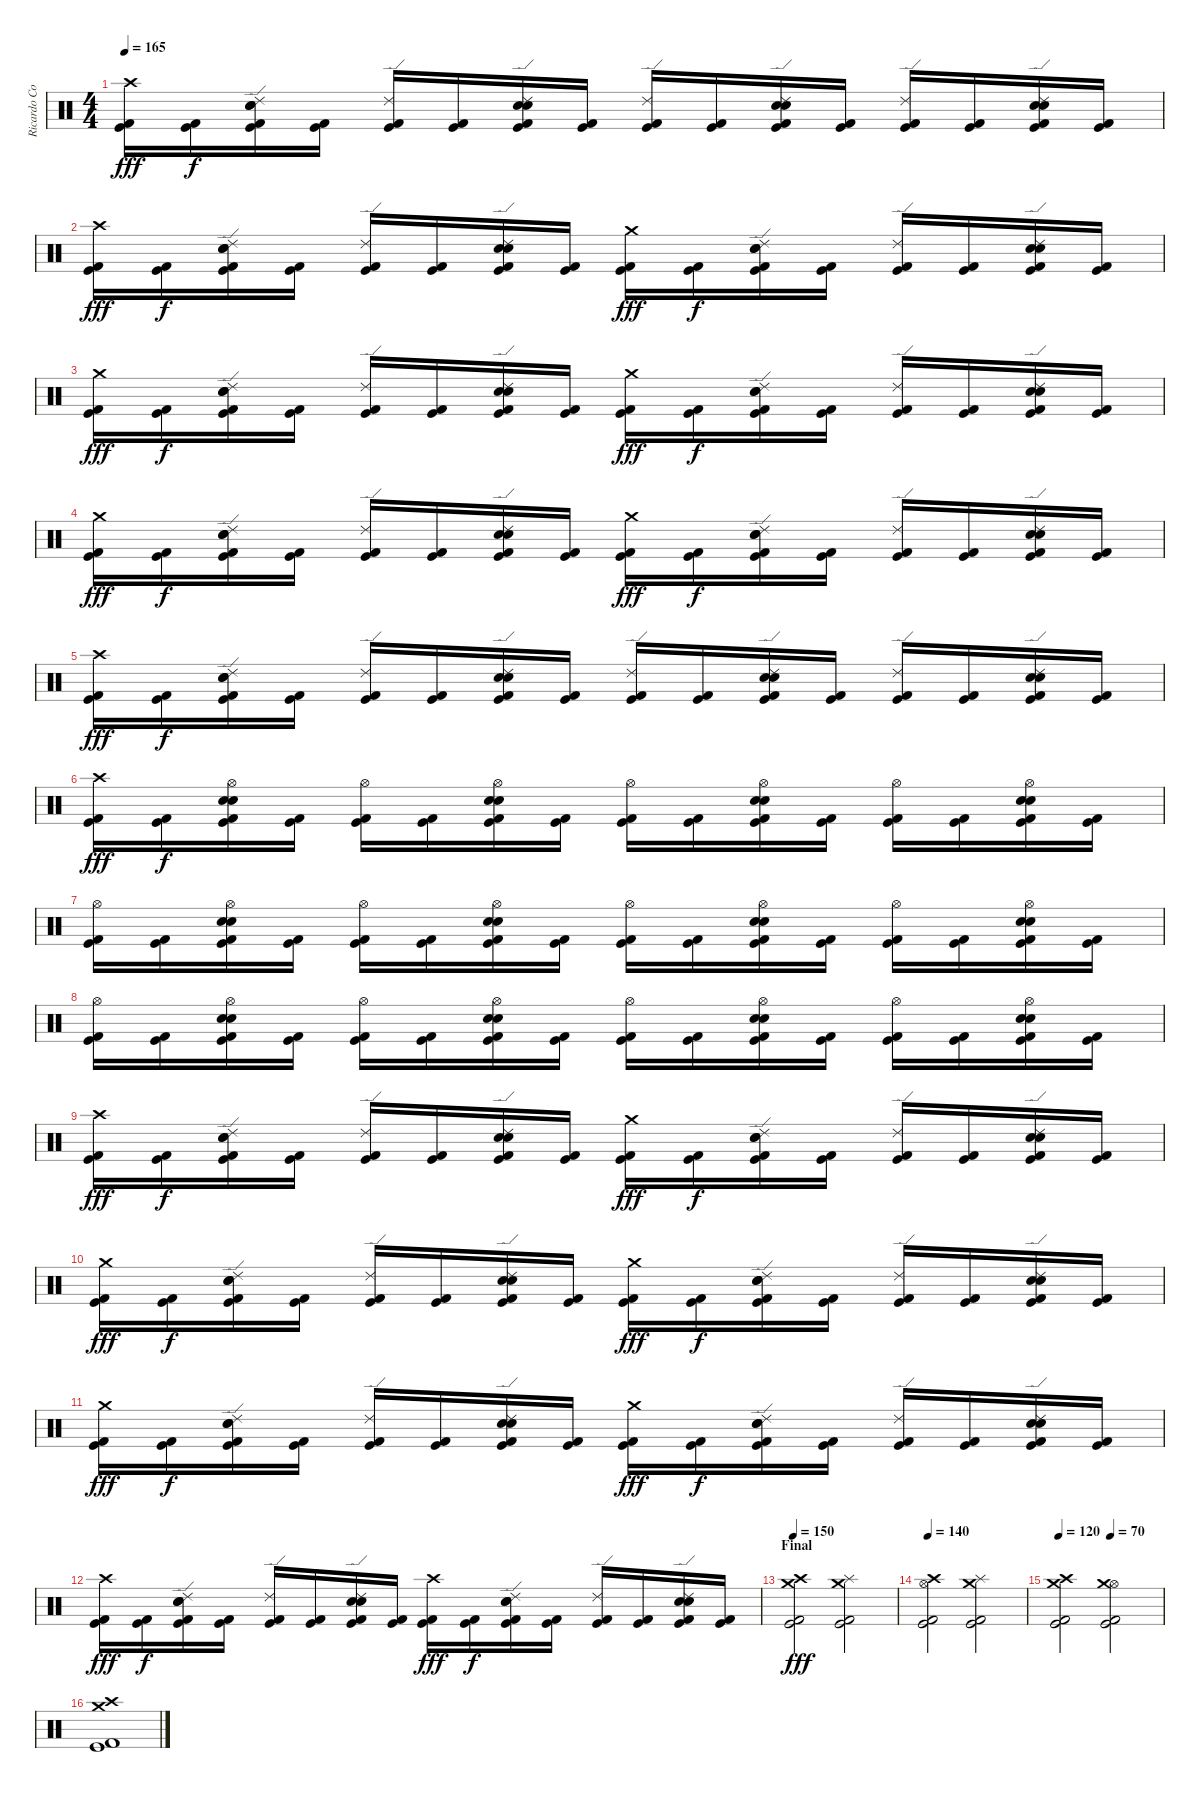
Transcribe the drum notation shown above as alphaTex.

\track ("Ricardo Confessori" "Ricardo Co") {instrument percussion}
\staff {score}
\articulation defaults
\ts (4 4)
\tempo 165
\clef neutral
\ks c
("Crash high (hit)" "Kick (hit) 2" "Kick (hit)").16{dy fff} ("Kick (hit) 2" "Kick (hit)").16{dy f} ("Ride (edge) 2" "Electric Snare (hit)" "Snare (hit) 2" "Kick (hit) 2" "Kick (hit)").16 ("Kick (hit) 2" "Kick (hit)").16 ("Ride (edge) 2" "Kick (hit) 2" "Kick (hit)").16 ("Kick (hit) 2" "Kick (hit)").16 ("Ride (edge) 2" "Electric Snare (hit)" "Snare (hit) 2" "Kick (hit) 2" "Kick (hit)").16 ("Kick (hit) 2" "Kick (hit)").16 ("Ride (edge) 2" "Kick (hit) 2" "Kick (hit)").16 ("Kick (hit) 2" "Kick (hit)").16 ("Ride (edge) 2" "Electric Snare (hit)" "Snare (hit) 2" "Kick (hit) 2" "Kick (hit)").16 ("Kick (hit) 2" "Kick (hit)").16 ("Ride (edge) 2" "Kick (hit) 2" "Kick (hit)").16 ("Kick (hit) 2" "Kick (hit)").16 ("Ride (edge) 2" "Electric Snare (hit)" "Snare (hit) 2" "Kick (hit) 2" "Kick (hit)").16 ("Kick (hit) 2" "Kick (hit)").16 |
("Crash high (hit)" "Kick (hit) 2" "Kick (hit)").16{dy fff} ("Kick (hit) 2" "Kick (hit)").16{dy f} ("Ride (edge) 2" "Electric Snare (hit)" "Snare (hit) 2" "Kick (hit) 2" "Kick (hit)").16 ("Kick (hit) 2" "Kick (hit)").16 ("Ride (edge) 2" "Kick (hit) 2" "Kick (hit)").16 ("Kick (hit) 2" "Kick (hit)").16 ("Ride (edge) 2" "Electric Snare (hit)" "Snare (hit) 2" "Kick (hit) 2" "Kick (hit)").16 ("Kick (hit) 2" "Kick (hit)").16 ("Crash medium (hit)" "Kick (hit) 2" "Kick (hit)").16{dy fff} ("Kick (hit) 2" "Kick (hit)").16{dy f} ("Ride (edge) 2" "Electric Snare (hit)" "Snare (hit) 2" "Kick (hit) 2" "Kick (hit)").16 ("Kick (hit) 2" "Kick (hit)").16 ("Ride (edge) 2" "Kick (hit) 2" "Kick (hit)").16 ("Kick (hit) 2" "Kick (hit)").16 ("Ride (edge) 2" "Electric Snare (hit)" "Snare (hit) 2" "Kick (hit) 2" "Kick (hit)").16 ("Kick (hit) 2" "Kick (hit)").16 |
("Crash medium (hit)" "Kick (hit) 2" "Kick (hit)").16{dy fff} ("Kick (hit) 2" "Kick (hit)").16{dy f} ("Ride (edge) 2" "Electric Snare (hit)" "Snare (hit) 2" "Kick (hit) 2" "Kick (hit)").16 ("Kick (hit) 2" "Kick (hit)").16 ("Ride (edge) 2" "Kick (hit) 2" "Kick (hit)").16 ("Kick (hit) 2" "Kick (hit)").16 ("Ride (edge) 2" "Electric Snare (hit)" "Snare (hit) 2" "Kick (hit) 2" "Kick (hit)").16 ("Kick (hit) 2" "Kick (hit)").16 ("Crash medium (hit)" "Kick (hit) 2" "Kick (hit)").16{dy fff} ("Kick (hit) 2" "Kick (hit)").16{dy f} ("Ride (edge) 2" "Electric Snare (hit)" "Snare (hit) 2" "Kick (hit) 2" "Kick (hit)").16 ("Kick (hit) 2" "Kick (hit)").16 ("Ride (edge) 2" "Kick (hit) 2" "Kick (hit)").16 ("Kick (hit) 2" "Kick (hit)").16 ("Ride (edge) 2" "Electric Snare (hit)" "Snare (hit) 2" "Kick (hit) 2" "Kick (hit)").16 ("Kick (hit) 2" "Kick (hit)").16 |
("Crash medium (hit)" "Kick (hit) 2" "Kick (hit)").16{dy fff} ("Kick (hit) 2" "Kick (hit)").16{dy f} ("Ride (edge) 2" "Electric Snare (hit)" "Snare (hit) 2" "Kick (hit) 2" "Kick (hit)").16 ("Kick (hit) 2" "Kick (hit)").16 ("Ride (edge) 2" "Kick (hit) 2" "Kick (hit)").16 ("Kick (hit) 2" "Kick (hit)").16 ("Ride (edge) 2" "Electric Snare (hit)" "Snare (hit) 2" "Kick (hit) 2" "Kick (hit)").16 ("Kick (hit) 2" "Kick (hit)").16 ("Crash medium (hit)" "Kick (hit) 2" "Kick (hit)").16{dy fff} ("Kick (hit) 2" "Kick (hit)").16{dy f} ("Ride (edge) 2" "Electric Snare (hit)" "Snare (hit) 2" "Kick (hit) 2" "Kick (hit)").16 ("Kick (hit) 2" "Kick (hit)").16 ("Ride (edge) 2" "Kick (hit) 2" "Kick (hit)").16 ("Kick (hit) 2" "Kick (hit)").16 ("Ride (edge) 2" "Electric Snare (hit)" "Snare (hit) 2" "Kick (hit) 2" "Kick (hit)").16 ("Kick (hit) 2" "Kick (hit)").16 |
("Crash high (hit)" "Kick (hit) 2" "Kick (hit)").16{dy fff} ("Kick (hit) 2" "Kick (hit)").16{dy f} ("Ride (edge) 2" "Electric Snare (hit)" "Snare (hit) 2" "Kick (hit) 2" "Kick (hit)").16 ("Kick (hit) 2" "Kick (hit)").16 ("Ride (edge) 2" "Kick (hit) 2" "Kick (hit)").16 ("Kick (hit) 2" "Kick (hit)").16 ("Ride (edge) 2" "Electric Snare (hit)" "Snare (hit) 2" "Kick (hit) 2" "Kick (hit)").16 ("Kick (hit) 2" "Kick (hit)").16 ("Ride (edge) 2" "Kick (hit) 2" "Kick (hit)").16 ("Kick (hit) 2" "Kick (hit)").16 ("Ride (edge) 2" "Electric Snare (hit)" "Snare (hit) 2" "Kick (hit) 2" "Kick (hit)").16 ("Kick (hit) 2" "Kick (hit)").16 ("Ride (edge) 2" "Kick (hit) 2" "Kick (hit)").16 ("Kick (hit) 2" "Kick (hit)").16 ("Ride (edge) 2" "Electric Snare (hit)" "Snare (hit) 2" "Kick (hit) 2" "Kick (hit)").16 ("Kick (hit) 2" "Kick (hit)").16 |
("Crash high (hit)" "Kick (hit) 2" "Kick (hit)").16{dy fff} ("Kick (hit) 2" "Kick (hit)").16{dy f} ("Hi-Hat (open)" "Electric Snare (hit)" "Snare (hit) 2" "Kick (hit) 2" "Kick (hit)").16 ("Kick (hit) 2" "Kick (hit)").16 ("Hi-Hat (open)" "Kick (hit) 2" "Kick (hit)").16 ("Kick (hit) 2" "Kick (hit)").16 ("Hi-Hat (open)" "Electric Snare (hit)" "Snare (hit) 2" "Kick (hit) 2" "Kick (hit)").16 ("Kick (hit) 2" "Kick (hit)").16 ("Hi-Hat (open)" "Kick (hit) 2" "Kick (hit)").16 ("Kick (hit) 2" "Kick (hit)").16 ("Hi-Hat (open)" "Electric Snare (hit)" "Snare (hit) 2" "Kick (hit) 2" "Kick (hit)").16 ("Kick (hit) 2" "Kick (hit)").16 ("Hi-Hat (open)" "Kick (hit) 2" "Kick (hit)").16 ("Kick (hit) 2" "Kick (hit)").16 ("Hi-Hat (open)" "Electric Snare (hit)" "Snare (hit) 2" "Kick (hit) 2" "Kick (hit)").16 ("Kick (hit) 2" "Kick (hit)").16 |
("Hi-Hat (open)" "Kick (hit) 2" "Kick (hit)").16 ("Kick (hit) 2" "Kick (hit)").16 ("Hi-Hat (open)" "Electric Snare (hit)" "Snare (hit) 2" "Kick (hit) 2" "Kick (hit)").16 ("Kick (hit) 2" "Kick (hit)").16 ("Hi-Hat (open)" "Kick (hit) 2" "Kick (hit)").16 ("Kick (hit) 2" "Kick (hit)").16 ("Hi-Hat (open)" "Electric Snare (hit)" "Snare (hit) 2" "Kick (hit) 2" "Kick (hit)").16 ("Kick (hit) 2" "Kick (hit)").16 ("Hi-Hat (open)" "Kick (hit) 2" "Kick (hit)").16 ("Kick (hit) 2" "Kick (hit)").16 ("Hi-Hat (open)" "Electric Snare (hit)" "Snare (hit) 2" "Kick (hit) 2" "Kick (hit)").16 ("Kick (hit) 2" "Kick (hit)").16 ("Hi-Hat (open)" "Kick (hit) 2" "Kick (hit)").16 ("Kick (hit) 2" "Kick (hit)").16 ("Hi-Hat (open)" "Electric Snare (hit)" "Snare (hit) 2" "Kick (hit) 2" "Kick (hit)").16 ("Kick (hit) 2" "Kick (hit)").16 |
("Hi-Hat (open)" "Kick (hit) 2" "Kick (hit)").16 ("Kick (hit) 2" "Kick (hit)").16 ("Hi-Hat (open)" "Electric Snare (hit)" "Snare (hit) 2" "Kick (hit) 2" "Kick (hit)").16 ("Kick (hit) 2" "Kick (hit)").16 ("Hi-Hat (open)" "Kick (hit) 2" "Kick (hit)").16 ("Kick (hit) 2" "Kick (hit)").16 ("Hi-Hat (open)" "Electric Snare (hit)" "Snare (hit) 2" "Kick (hit) 2" "Kick (hit)").16 ("Kick (hit) 2" "Kick (hit)").16 ("Hi-Hat (open)" "Kick (hit) 2" "Kick (hit)").16 ("Kick (hit) 2" "Kick (hit)").16 ("Hi-Hat (open)" "Electric Snare (hit)" "Snare (hit) 2" "Kick (hit) 2" "Kick (hit)").16 ("Kick (hit) 2" "Kick (hit)").16 ("Hi-Hat (open)" "Kick (hit) 2" "Kick (hit)").16 ("Kick (hit) 2" "Kick (hit)").16 ("Hi-Hat (open)" "Electric Snare (hit)" "Snare (hit) 2" "Kick (hit) 2" "Kick (hit)").16 ("Kick (hit) 2" "Kick (hit)").16 |
("Crash high (hit)" "Kick (hit) 2" "Kick (hit)").16{dy fff} ("Kick (hit) 2" "Kick (hit)").16{dy f} ("Ride (edge) 2" "Electric Snare (hit)" "Snare (hit) 2" "Kick (hit) 2" "Kick (hit)").16 ("Kick (hit) 2" "Kick (hit)").16 ("Ride (edge) 2" "Kick (hit) 2" "Kick (hit)").16 ("Kick (hit) 2" "Kick (hit)").16 ("Ride (edge) 2" "Electric Snare (hit)" "Snare (hit) 2" "Kick (hit) 2" "Kick (hit)").16 ("Kick (hit) 2" "Kick (hit)").16 ("Crash medium (hit)" "Kick (hit) 2" "Kick (hit)").16{dy fff} ("Kick (hit) 2" "Kick (hit)").16{dy f} ("Ride (edge) 2" "Electric Snare (hit)" "Snare (hit) 2" "Kick (hit) 2" "Kick (hit)").16 ("Kick (hit) 2" "Kick (hit)").16 ("Ride (edge) 2" "Kick (hit) 2" "Kick (hit)").16 ("Kick (hit) 2" "Kick (hit)").16 ("Ride (edge) 2" "Electric Snare (hit)" "Snare (hit) 2" "Kick (hit) 2" "Kick (hit)").16 ("Kick (hit) 2" "Kick (hit)").16 |
("Crash medium (hit)" "Kick (hit) 2" "Kick (hit)").16{dy fff} ("Kick (hit) 2" "Kick (hit)").16{dy f} ("Ride (edge) 2" "Electric Snare (hit)" "Snare (hit) 2" "Kick (hit) 2" "Kick (hit)").16 ("Kick (hit) 2" "Kick (hit)").16 ("Ride (edge) 2" "Kick (hit) 2" "Kick (hit)").16 ("Kick (hit) 2" "Kick (hit)").16 ("Ride (edge) 2" "Electric Snare (hit)" "Snare (hit) 2" "Kick (hit) 2" "Kick (hit)").16 ("Kick (hit) 2" "Kick (hit)").16 ("Crash medium (hit)" "Kick (hit) 2" "Kick (hit)").16{dy fff} ("Kick (hit) 2" "Kick (hit)").16{dy f} ("Ride (edge) 2" "Electric Snare (hit)" "Snare (hit) 2" "Kick (hit) 2" "Kick (hit)").16 ("Kick (hit) 2" "Kick (hit)").16 ("Ride (edge) 2" "Kick (hit) 2" "Kick (hit)").16 ("Kick (hit) 2" "Kick (hit)").16 ("Ride (edge) 2" "Electric Snare (hit)" "Snare (hit) 2" "Kick (hit) 2" "Kick (hit)").16 ("Kick (hit) 2" "Kick (hit)").16 |
("Crash medium (hit)" "Kick (hit) 2" "Kick (hit)").16{dy fff} ("Kick (hit) 2" "Kick (hit)").16{dy f} ("Ride (edge) 2" "Electric Snare (hit)" "Snare (hit) 2" "Kick (hit) 2" "Kick (hit)").16 ("Kick (hit) 2" "Kick (hit)").16 ("Ride (edge) 2" "Kick (hit) 2" "Kick (hit)").16 ("Kick (hit) 2" "Kick (hit)").16 ("Ride (edge) 2" "Electric Snare (hit)" "Snare (hit) 2" "Kick (hit) 2" "Kick (hit)").16 ("Kick (hit) 2" "Kick (hit)").16 ("Crash medium (hit)" "Kick (hit) 2" "Kick (hit)").16{dy fff} ("Kick (hit) 2" "Kick (hit)").16{dy f} ("Ride (edge) 2" "Electric Snare (hit)" "Snare (hit) 2" "Kick (hit) 2" "Kick (hit)").16 ("Kick (hit) 2" "Kick (hit)").16 ("Ride (edge) 2" "Kick (hit) 2" "Kick (hit)").16 ("Kick (hit) 2" "Kick (hit)").16 ("Ride (edge) 2" "Electric Snare (hit)" "Snare (hit) 2" "Kick (hit) 2" "Kick (hit)").16 ("Kick (hit) 2" "Kick (hit)").16 |
("Crash high (hit)" "Kick (hit) 2" "Kick (hit)").16{dy fff} ("Kick (hit) 2" "Kick (hit)").16{dy f} ("Ride (edge) 2" "Electric Snare (hit)" "Snare (hit) 2" "Kick (hit) 2" "Kick (hit)").16 ("Kick (hit) 2" "Kick (hit)").16 ("Ride (edge) 2" "Kick (hit) 2" "Kick (hit)").16 ("Kick (hit) 2" "Kick (hit)").16 ("Ride (edge) 2" "Electric Snare (hit)" "Snare (hit) 2" "Kick (hit) 2" "Kick (hit)").16 ("Kick (hit) 2" "Kick (hit)").16 ("Crash high (hit)" "Kick (hit) 2" "Kick (hit)").16{dy fff} ("Kick (hit) 2" "Kick (hit)").16{dy f} ("Ride (edge) 2" "Electric Snare (hit)" "Snare (hit) 2" "Kick (hit) 2" "Kick (hit)").16 ("Kick (hit) 2" "Kick (hit)").16 ("Ride (edge) 2" "Kick (hit) 2" "Kick (hit)").16 ("Kick (hit) 2" "Kick (hit)").16 ("Ride (edge) 2" "Electric Snare (hit)" "Snare (hit) 2" "Kick (hit) 2" "Kick (hit)").16 ("Kick (hit) 2" "Kick (hit)").16 |
\section ("" "Final")
\tempo 150
("Crash high (hit)" "Crash medium (hit)" "Kick (hit) 2" "Kick (hit)").2{dy fff} ("Splash (hit)" "Crash medium (hit)" "Kick (hit) 2" "Kick (hit)").2 |
\tempo 140
("Crash high (hit)" "Hi-Hat (open)" "Kick (hit) 2" "Kick (hit)").2 ("Splash (hit)" "Crash medium (hit)" "Kick (hit) 2" "Kick (hit)").2 |
\tempo 120
\tempo (70 0.5)
("Crash high (hit)" "Crash medium (hit)" "Kick (hit) 2" "Kick (hit)").2 ("Hi-Hat (open)" "Crash medium (hit)" "Kick (hit) 2" "Kick (hit)").2 |
("Crash high (hit)" "Crash medium (hit)" "Kick (hit) 2" "Kick (hit)").1
